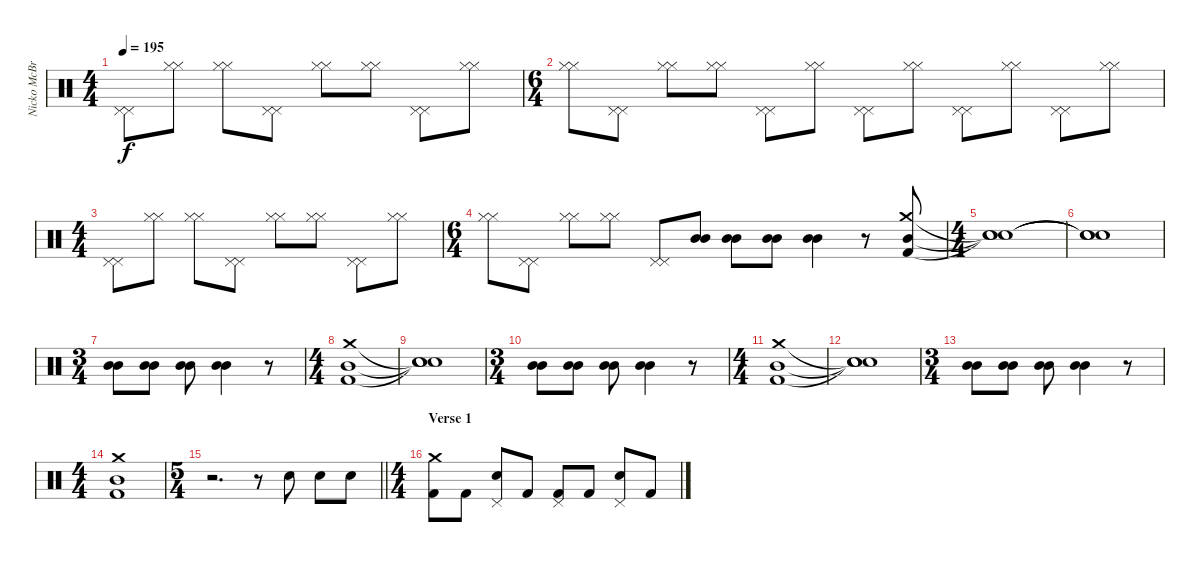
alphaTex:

\track ("Nicko McBrain" "Nicko McBr") {instrument percussion}
\staff {score}
\articulation defaults
\ts (4 4)
\tempo 195
\clef neutral
\ks c
("Pedal Hi-Hat (hit)" "Pedal Hi-Hat (hit)").8{dy f} ("Hi-Hat (closed)" "Hi-Hat (closed)").8 ("Hi-Hat (closed)" "Hi-Hat (closed)").8 ("Pedal Hi-Hat (hit)" "Pedal Hi-Hat (hit)").8 ("Hi-Hat (closed)" "Hi-Hat (closed)").8 ("Hi-Hat (closed)" "Hi-Hat (closed)").8 ("Pedal Hi-Hat (hit)" "Pedal Hi-Hat (hit)").8 ("Hi-Hat (closed)" "Hi-Hat (closed)").8 |
\ts (6 4)
("Hi-Hat (closed)" "Hi-Hat (closed)").8 ("Pedal Hi-Hat (hit)" "Pedal Hi-Hat (hit)").8 ("Hi-Hat (closed)" "Hi-Hat (closed)").8 ("Hi-Hat (closed)" "Hi-Hat (closed)").8 ("Pedal Hi-Hat (hit)" "Pedal Hi-Hat (hit)").8 ("Hi-Hat (closed)" "Hi-Hat (closed)").8 ("Pedal Hi-Hat (hit)" "Pedal Hi-Hat (hit)").8 ("Hi-Hat (closed)" "Hi-Hat (closed)").8 ("Pedal Hi-Hat (hit)" "Pedal Hi-Hat (hit)").8 ("Hi-Hat (closed)" "Hi-Hat (closed)").8 ("Pedal Hi-Hat (hit)" "Pedal Hi-Hat (hit)").8 ("Hi-Hat (closed)" "Hi-Hat (closed)").8 |
\ts (4 4)
("Pedal Hi-Hat (hit)" "Pedal Hi-Hat (hit)").8 ("Hi-Hat (closed)" "Hi-Hat (closed)").8 ("Hi-Hat (closed)" "Hi-Hat (closed)").8 ("Pedal Hi-Hat (hit)" "Pedal Hi-Hat (hit)").8 ("Hi-Hat (closed)" "Hi-Hat (closed)").8 ("Hi-Hat (closed)" "Hi-Hat (closed)").8 ("Pedal Hi-Hat (hit)" "Pedal Hi-Hat (hit)").8 ("Hi-Hat (closed)" "Hi-Hat (closed)").8 |
\ts (6 4)
("Hi-Hat (closed)" "Hi-Hat (closed)").8 ("Pedal Hi-Hat (hit)" "Pedal Hi-Hat (hit)").8 ("Hi-Hat (closed)" "Hi-Hat (closed)").8 ("Hi-Hat (closed)" "Hi-Hat (closed)").8 ("Pedal Hi-Hat (hit)" "Pedal Hi-Hat (hit)").8 ("Mid Tom (hit)" "Mid Tom (hit)").8 ("Mid Tom (hit)" "Mid Tom (hit)").8 ("Mid Tom (hit)" "Mid Tom (hit)").8 ("Mid Tom (hit)" "Mid Tom (hit)").4 r.8 ("Crash medium (hit)" "Mid Tom (hit)" "Kick (hit) 2").8 |
\ts (4 4)
("Snare (hit)"{t} "Snare (hit)"{t} "Snare (hit)"{t}).1 |
("Snare (hit)"{t} "Snare (hit)"{t} "Snare (hit)"{t}).1 |
\ts (3 4)
("Mid Tom (hit)" "Mid Tom (hit)").8 ("Mid Tom (hit)" "Mid Tom (hit)").8 ("Mid Tom (hit)" "Mid Tom (hit)").8 ("Mid Tom (hit)" "Mid Tom (hit)").4 r.8 |
\ts (4 4)
("Crash medium (hit)" "Mid Tom (hit)" "Kick (hit) 2").1 |
("Snare (hit)"{t} "Snare (hit)"{t} "Snare (hit)"{t}).1 |
\ts (3 4)
("Mid Tom (hit)" "Mid Tom (hit)").8 ("Mid Tom (hit)" "Mid Tom (hit)").8 ("Mid Tom (hit)" "Mid Tom (hit)").8 ("Mid Tom (hit)" "Mid Tom (hit)").4 r.8 |
\ts (4 4)
("Crash medium (hit)" "Mid Tom (hit)" "Kick (hit) 2").1 |
("Snare (hit)"{t} "Snare (hit)"{t} "Snare (hit)"{t}).1 |
\ts (3 4)
("Mid Tom (hit)" "Mid Tom (hit)").8 ("Mid Tom (hit)" "Mid Tom (hit)").8 ("Mid Tom (hit)" "Mid Tom (hit)").8 ("Mid Tom (hit)" "Mid Tom (hit)").4 r.8 |
\ts (4 4)
("Mid Tom (hit)" "Crash medium (hit)" "Kick (hit) 2").1 |
\ts (5 4)
\barLineRight lightlight
r.2{d} r.8 "Snare (hit) 2".8 "Snare (hit) 2".8 "Snare (hit) 2".8 |
\ts (4 4)
\section ("" "Verse 1")
("Crash medium (hit)" "Kick (hit) 2").8 "Kick (hit) 2".8 ("Pedal Hi-Hat (hit)" "Snare (hit) 2").8 "Kick (hit) 2".8 ("Pedal Hi-Hat (hit)" "Kick (hit) 2").8 "Kick (hit) 2".8 ("Pedal Hi-Hat (hit)" "Snare (hit) 2").8 "Kick (hit) 2".8
